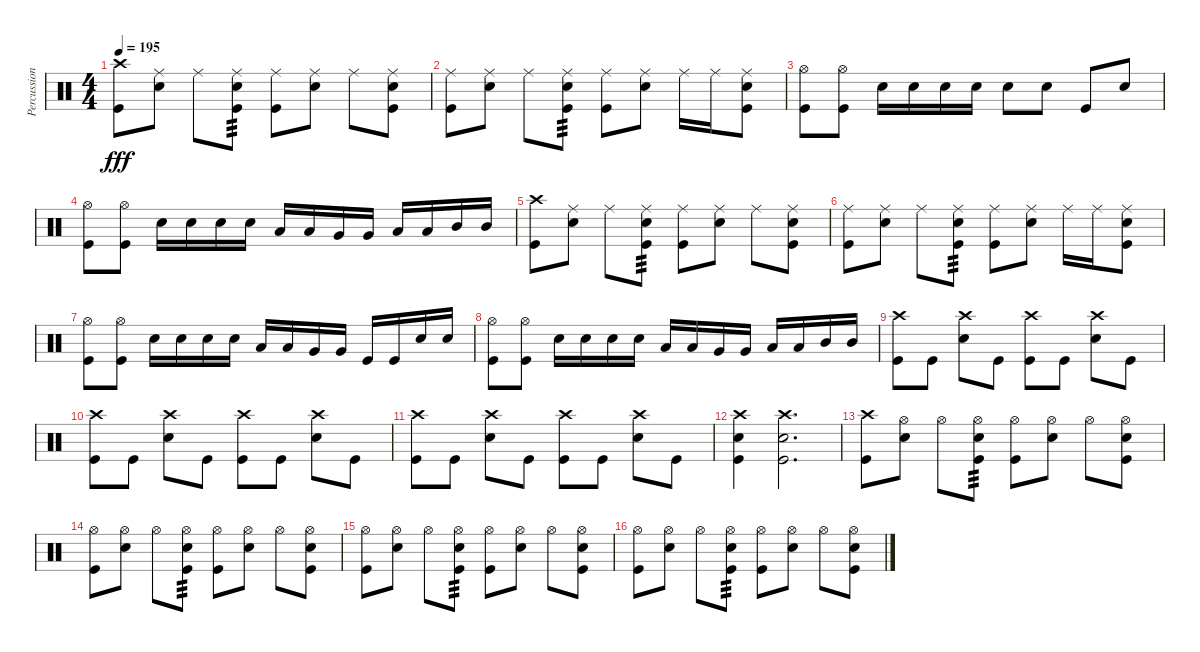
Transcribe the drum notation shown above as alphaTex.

\track ("Percussions" "Percussion") {instrument percussion}
\staff {score}
\articulation defaults
\ts (4 4)
\tempo 195
\clef neutral
\ks c
("Crash high (hit)" "Kick (hit)").8{dy fff} ("Ride (middle)" "Electric Snare (hit)").8 "Ride (middle)".8 ("Ride (middle)" "Electric Snare (hit)" "Kick (hit)").8{tp 3} ("Ride (middle)" "Kick (hit)").8 ("Ride (middle)" "Electric Snare (hit)").8 "Ride (middle)".8 ("Ride (middle)" "Electric Snare (hit)" "Kick (hit)").8 |
("Ride (middle)" "Kick (hit)").8 ("Ride (middle)" "Electric Snare (hit)").8 "Ride (middle)".8 ("Ride (middle)" "Electric Snare (hit)" "Kick (hit)").8{tp 3} ("Ride (middle)" "Kick (hit)").8 ("Ride (middle)" "Electric Snare (hit)").8 "Ride (middle)".16 "Ride (middle)".16 ("Ride (middle)" "Electric Snare (hit)" "Kick (hit)").8 |
("Hi-Hat (open)" "Kick (hit)").8 ("Hi-Hat (open)" "Kick (hit)").8 "Electric Snare (hit)".16 "Electric Snare (hit)".16 "Electric Snare (hit)".16 "Electric Snare (hit)".16 "Electric Snare (hit)".8 "Electric Snare (hit)".8 "Kick (hit)".8 "Electric Snare (hit)".8 |
("Hi-Hat (open)" "Kick (hit)").8 ("Hi-Hat (open)" "Kick (hit)").8 "Electric Snare (hit)".16 "Electric Snare (hit)".16 "Electric Snare (hit)".16 "Electric Snare (hit)".16 "Low Tom (hit)".16 "Low Tom (hit)".16 "Very Low Tom (hit)".16 "Very Low Tom (hit)".16 "Low Floor Tom (hit)".16 "Low Floor Tom (hit)".16 "Mid Tom (hit)".16 "Mid Tom (hit)".16 |
("Crash high (hit)" "Kick (hit)").8 ("Ride (middle)" "Electric Snare (hit)").8 "Ride (middle)".8 ("Ride (middle)" "Electric Snare (hit)" "Kick (hit)").8{tp 3} ("Ride (middle)" "Kick (hit)").8 ("Ride (middle)" "Electric Snare (hit)").8 "Ride (middle)".8 ("Ride (middle)" "Electric Snare (hit)" "Kick (hit)").8 |
("Ride (middle)" "Kick (hit)").8 ("Ride (middle)" "Electric Snare (hit)").8 "Ride (middle)".8 ("Ride (middle)" "Electric Snare (hit)" "Kick (hit)").8{tp 3} ("Ride (middle)" "Kick (hit)").8 ("Ride (middle)" "Electric Snare (hit)").8 "Ride (middle)".16 "Ride (middle)".16 ("Ride (middle)" "Electric Snare (hit)" "Kick (hit)").8 |
("Hi-Hat (open)" "Kick (hit)").8 ("Hi-Hat (open)" "Kick (hit)").8 "Electric Snare (hit)".16 "Electric Snare (hit)".16 "Electric Snare (hit)".16 "Electric Snare (hit)".16 "Low Tom (hit)".16 "Low Tom (hit)".16 "Very Low Tom (hit)".16 "Very Low Tom (hit)".16 "Kick (hit)".16 "Kick (hit)".16 "Electric Snare (hit)".16 "Electric Snare (hit)".16 |
("Hi-Hat (open)" "Kick (hit)").8 ("Hi-Hat (open)" "Kick (hit)").8 "Electric Snare (hit)".16 "Electric Snare (hit)".16 "Electric Snare (hit)".16 "Electric Snare (hit)".16 "Low Tom (hit)".16 "Low Tom (hit)".16 "Very Low Tom (hit)".16 "Very Low Tom (hit)".16 "Low Floor Tom (hit)".16 "Low Floor Tom (hit)".16 "Mid Tom (hit)".16 "Mid Tom (hit)".16 |
("Crash high (hit)" "Kick (hit)").8 "Kick (hit)".8 ("Crash high (hit)" "Electric Snare (hit)").8 "Kick (hit)".8 ("Crash high (hit)" "Kick (hit)").8 "Kick (hit)".8 ("Crash high (hit)" "Electric Snare (hit)").8 "Kick (hit)".8 |
("Crash high (hit)" "Kick (hit)").8 "Kick (hit)".8 ("Crash high (hit)" "Electric Snare (hit)").8 "Kick (hit)".8 ("Crash high (hit)" "Kick (hit)").8 "Kick (hit)".8 ("Crash high (hit)" "Electric Snare (hit)").8 "Kick (hit)".8 |
("Crash high (hit)" "Kick (hit)").8 "Kick (hit)".8 ("Crash high (hit)" "Electric Snare (hit)").8 "Kick (hit)".8 ("Crash high (hit)" "Kick (hit)").8 "Kick (hit)".8 ("Crash high (hit)" "Electric Snare (hit)").8 "Kick (hit)".8 |
("Crash high (hit)" "Electric Snare (hit)" "Kick (hit)").4 ("Crash high (hit)" "Electric Snare (hit)" "Kick (hit)").2{d} |
("Crash high (hit)" "Kick (hit)").8 ("Hi-Hat (open)" "Electric Snare (hit)").8 "Hi-Hat (open)".8 ("Hi-Hat (open)" "Electric Snare (hit)" "Kick (hit)").8{tp 3} ("Hi-Hat (open)" "Kick (hit)").8 ("Hi-Hat (open)" "Electric Snare (hit)").8 "Hi-Hat (open)".8 ("Hi-Hat (open)" "Electric Snare (hit)" "Kick (hit)").8 |
("Hi-Hat (open)" "Kick (hit)").8 ("Hi-Hat (open)" "Electric Snare (hit)").8 "Hi-Hat (open)".8 ("Hi-Hat (open)" "Electric Snare (hit)" "Kick (hit)").8{tp 3} ("Hi-Hat (open)" "Kick (hit)").8 ("Hi-Hat (open)" "Electric Snare (hit)").8 "Hi-Hat (open)".8 ("Hi-Hat (open)" "Electric Snare (hit)" "Kick (hit)").8 |
("Hi-Hat (open)" "Kick (hit)").8 ("Hi-Hat (open)" "Electric Snare (hit)").8 "Hi-Hat (open)".8 ("Hi-Hat (open)" "Electric Snare (hit)" "Kick (hit)").8{tp 3} ("Hi-Hat (open)" "Kick (hit)").8 ("Hi-Hat (open)" "Electric Snare (hit)").8 "Hi-Hat (open)".8 ("Hi-Hat (open)" "Electric Snare (hit)" "Kick (hit)").8 |
("Hi-Hat (open)" "Kick (hit)").8 ("Hi-Hat (open)" "Electric Snare (hit)").8 "Hi-Hat (open)".8 ("Hi-Hat (open)" "Electric Snare (hit)" "Kick (hit)").8{tp 3} ("Hi-Hat (open)" "Kick (hit)").8 ("Hi-Hat (open)" "Electric Snare (hit)").8 "Hi-Hat (open)".8 ("Hi-Hat (open)" "Electric Snare (hit)" "Kick (hit)").8
